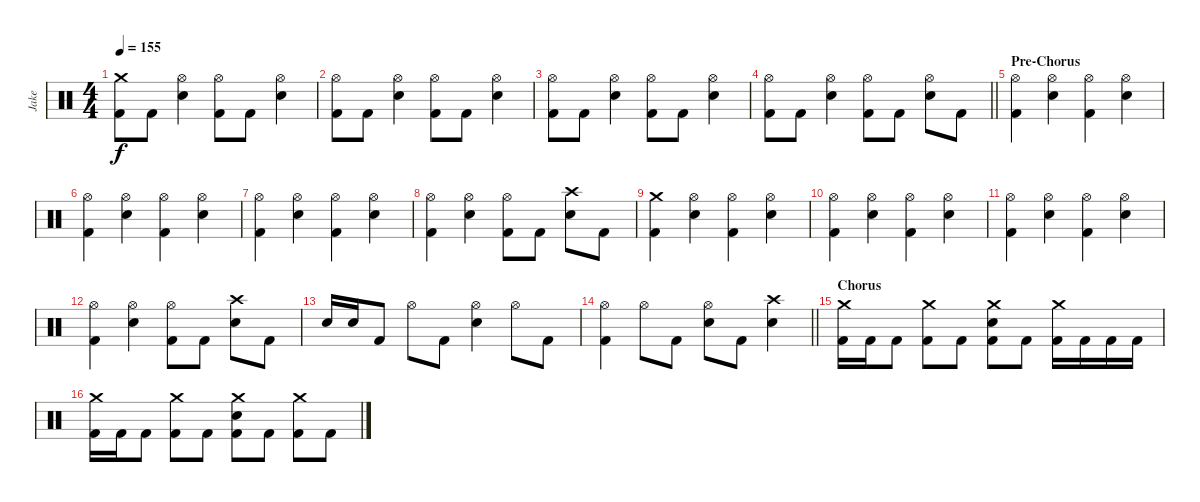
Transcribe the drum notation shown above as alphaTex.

\track ("Jake" "Jake") {instrument percussion}
\staff {score}
\articulation defaults
\ts (4 4)
\tempo 155
\clef neutral
\ks c
("Crash medium (hit)" "Kick (hit) 2").8{dy f} "Kick (hit) 2".8 ("Hi-Hat (open)" "Electric Snare (hit)").4 ("Hi-Hat (open)" "Kick (hit) 2").8 "Kick (hit) 2".8 ("Hi-Hat (open)" "Electric Snare (hit)").4 |
("Hi-Hat (open)" "Kick (hit) 2").8 "Kick (hit) 2".8 ("Hi-Hat (open)" "Electric Snare (hit)").4 ("Hi-Hat (open)" "Kick (hit) 2").8 "Kick (hit) 2".8 ("Hi-Hat (open)" "Electric Snare (hit)").4 |
("Hi-Hat (open)" "Kick (hit) 2").8 "Kick (hit) 2".8 ("Hi-Hat (open)" "Electric Snare (hit)").4 ("Hi-Hat (open)" "Kick (hit) 2").8 "Kick (hit) 2".8 ("Hi-Hat (open)" "Electric Snare (hit)").4 |
\barLineRight lightlight
("Hi-Hat (open)" "Kick (hit) 2").8 "Kick (hit) 2".8 ("Hi-Hat (open)" "Electric Snare (hit)").4 ("Hi-Hat (open)" "Kick (hit) 2").8 "Kick (hit) 2".8 ("Hi-Hat (open)" "Electric Snare (hit)").8 "Kick (hit) 2".8 |
\section ("" "Pre-Chorus")
("Hi-Hat (open)" "Kick (hit) 2").4 ("Hi-Hat (open)" "Electric Snare (hit)").4 ("Hi-Hat (open)" "Kick (hit) 2").4 ("Hi-Hat (open)" "Electric Snare (hit)").4 |
("Hi-Hat (open)" "Kick (hit) 2").4 ("Hi-Hat (open)" "Electric Snare (hit)").4 ("Hi-Hat (open)" "Kick (hit) 2").4 ("Hi-Hat (open)" "Electric Snare (hit)").4 |
("Hi-Hat (open)" "Kick (hit) 2").4 ("Hi-Hat (open)" "Electric Snare (hit)").4 ("Hi-Hat (open)" "Kick (hit) 2").4 ("Hi-Hat (open)" "Electric Snare (hit)").4 |
("Hi-Hat (open)" "Kick (hit) 2").4 ("Hi-Hat (open)" "Electric Snare (hit)").4 ("Hi-Hat (open)" "Kick (hit) 2").8 "Kick (hit) 2".8 ("Crash high (hit)" "Electric Snare (hit)").8 "Kick (hit) 2".8 |
("Crash medium (hit)" "Kick (hit) 2").4 ("Hi-Hat (open)" "Electric Snare (hit)").4 ("Hi-Hat (open)" "Kick (hit) 2").4 ("Hi-Hat (open)" "Electric Snare (hit)").4 |
("Hi-Hat (open)" "Kick (hit) 2").4 ("Hi-Hat (open)" "Electric Snare (hit)").4 ("Hi-Hat (open)" "Kick (hit) 2").4 ("Hi-Hat (open)" "Electric Snare (hit)").4 |
("Hi-Hat (open)" "Kick (hit) 2").4 ("Hi-Hat (open)" "Electric Snare (hit)").4 ("Hi-Hat (open)" "Kick (hit) 2").4 ("Hi-Hat (open)" "Electric Snare (hit)").4 |
("Hi-Hat (open)" "Kick (hit) 2").4 ("Hi-Hat (open)" "Electric Snare (hit)").4 ("Hi-Hat (open)" "Kick (hit) 2").8 "Kick (hit) 2".8 ("Crash high (hit)" "Electric Snare (hit)").8 "Kick (hit) 2".8 |
"Electric Snare (hit)".16 "Electric Snare (hit)".16 "Kick (hit) 2".8 "Hi-Hat (open)".8 "Kick (hit) 2".8 ("Hi-Hat (open)" "Electric Snare (hit)").4 "Hi-Hat (open)".8 "Kick (hit) 2".8 |
\barLineRight lightlight
("Hi-Hat (open)" "Kick (hit) 2").4 "Hi-Hat (open)".8 "Kick (hit) 2".8 ("Hi-Hat (open)" "Electric Snare (hit)").8 "Kick (hit) 2".8 ("Crash high (hit)" "Electric Snare (hit)").4 |
\section ("" "Chorus")
("Crash medium (hit)" "Kick (hit) 2").16 "Kick (hit) 2".16 "Kick (hit) 2".8 ("Crash medium (hit)" "Kick (hit) 2").8 "Kick (hit) 2".8 ("Crash medium (hit)" "Electric Snare (hit)" "Kick (hit) 2").8 "Kick (hit) 2".8 ("Crash medium (hit)" "Kick (hit) 2").16 "Kick (hit) 2".16 "Kick (hit) 2".16 "Kick (hit) 2".16 |
("Crash medium (hit)" "Kick (hit) 2").16 "Kick (hit) 2".16 "Kick (hit) 2".8 ("Crash medium (hit)" "Kick (hit) 2").8 "Kick (hit) 2".8 ("Crash medium (hit)" "Electric Snare (hit)" "Kick (hit) 2").8 "Kick (hit) 2".8 ("Crash medium (hit)" "Kick (hit) 2").8 "Kick (hit) 2".8
